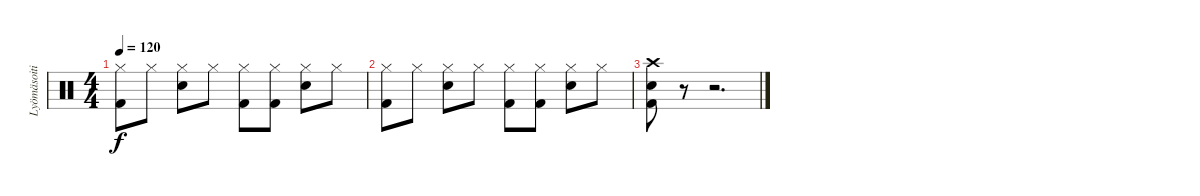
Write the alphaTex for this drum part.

\track ("Lyömäsoitin" "Lyömäsoiti") {instrument percussion}
\staff {score}
\articulation defaults
\ts (4 4)
\tempo 120
\clef neutral
\ks c
("Hi-Hat (closed)" "Kick (hit) 2").8{dy f} "Hi-Hat (closed)".8 ("Hi-Hat (closed)" "Electric Snare (hit)").8 "Hi-Hat (closed)".8 ("Hi-Hat (closed)" "Kick (hit) 2").8 ("Hi-Hat (closed)" "Kick (hit) 2").8 ("Hi-Hat (closed)" "Electric Snare (hit)").8 "Hi-Hat (closed)".8 |
("Hi-Hat (closed)" "Kick (hit) 2").8 "Hi-Hat (closed)".8 ("Hi-Hat (closed)" "Electric Snare (hit)").8 "Hi-Hat (closed)".8 ("Hi-Hat (closed)" "Kick (hit) 2").8 ("Hi-Hat (closed)" "Kick (hit) 2").8 ("Hi-Hat (closed)" "Electric Snare (hit)").8 "Hi-Hat (closed)".8 |
("Crash high (hit)" "Electric Snare (hit)" "Kick (hit) 2").8 r.8 r.2{d}
